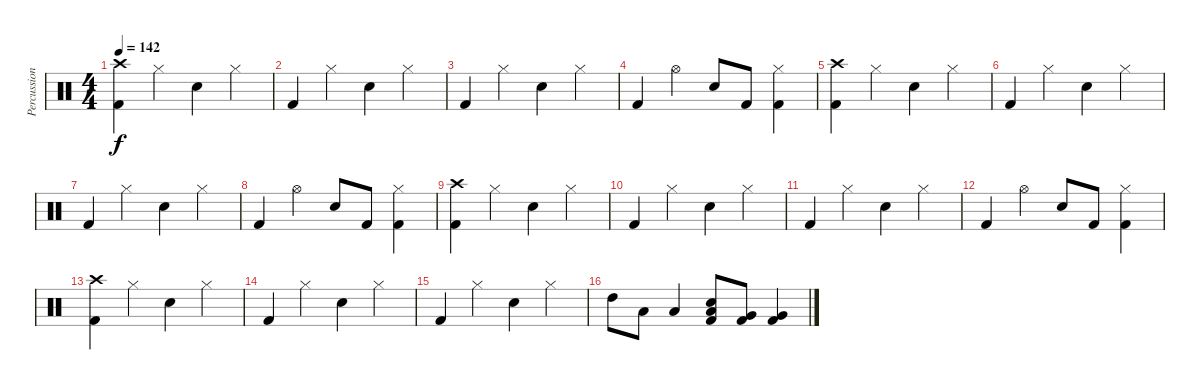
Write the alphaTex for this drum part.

\track ("Percussion" "Percussion") {instrument percussion}
\staff {score}
\articulation defaults
\ts (4 4)
\tempo 142
\clef neutral
\ks c
("Crash high (hit)" "Kick (hit) 2").4{dy f} "Hi-Hat (closed)".4 "Snare (hit) 2".4 "Hi-Hat (closed)".4 |
"Kick (hit) 2".4 "Hi-Hat (closed)".4 "Snare (hit) 2".4 "Hi-Hat (closed)".4 |
"Kick (hit) 2".4 "Hi-Hat (closed)".4 "Snare (hit) 2".4 "Hi-Hat (closed)".4 |
"Kick (hit) 2".4 "Hi-Hat (open)".4 "Snare (hit) 2".8 "Kick (hit) 2".8 ("Hi-Hat (closed)" "Kick (hit) 2").4 |
("Crash high (hit)" "Kick (hit) 2").4 "Hi-Hat (closed)".4 "Snare (hit) 2".4 "Hi-Hat (closed)".4 |
"Kick (hit) 2".4 "Hi-Hat (closed)".4 "Snare (hit) 2".4 "Hi-Hat (closed)".4 |
"Kick (hit) 2".4 "Hi-Hat (closed)".4 "Snare (hit) 2".4 "Hi-Hat (closed)".4 |
"Kick (hit) 2".4 "Hi-Hat (open)".4 "Snare (hit) 2".8 "Kick (hit) 2".8 ("Hi-Hat (closed)" "Kick (hit) 2").4 |
("Crash high (hit)" "Kick (hit) 2").4 "Hi-Hat (closed)".4 "Snare (hit) 2".4 "Hi-Hat (closed)".4 |
"Kick (hit) 2".4 "Hi-Hat (closed)".4 "Snare (hit) 2".4 "Hi-Hat (closed)".4 |
"Kick (hit) 2".4 "Hi-Hat (closed)".4 "Snare (hit) 2".4 "Hi-Hat (closed)".4 |
"Kick (hit) 2".4 "Hi-Hat (open)".4 "Snare (hit) 2".8 "Kick (hit) 2".8 ("Hi-Hat (closed)" "Kick (hit) 2").4 |
("Crash high (hit)" "Kick (hit) 2").4 "Hi-Hat (closed)".4 "Snare (hit) 2".4 "Hi-Hat (closed)".4 |
"Kick (hit) 2".4 "Hi-Hat (closed)".4 "Snare (hit) 2".4 "Hi-Hat (closed)".4 |
"Kick (hit) 2".4 "Hi-Hat (closed)".4 "Snare (hit) 2".4 "Hi-Hat (closed)".4 |
"High Tom (hit)".8 "Low Tom (hit)".8 "Low Tom (hit)".4 ("Snare (hit) 2" "Low Tom (hit)" "Kick (hit) 2").8 ("Very Low Tom (hit)" "Kick (hit) 2").8 ("Very Low Tom (hit)" "Kick (hit) 2").4
